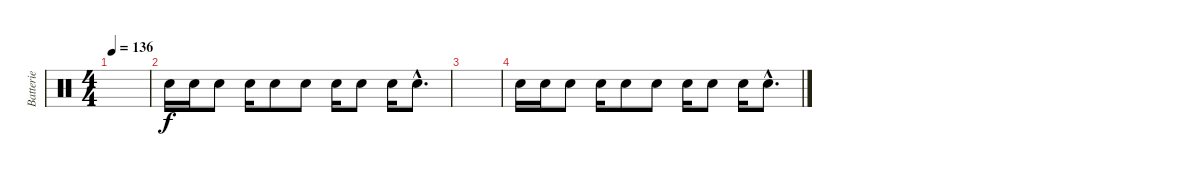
\track ("Batterie" "Batterie") {instrument percussion}
\staff {score}
\articulation defaults
\ts (4 4)
\tempo 136
\clef neutral
\ks c
|
"Snare (hit) 2".16 "Snare (hit) 2".16 "Snare (hit) 2".8 "Snare (hit) 2".16 "Snare (hit) 2".8 "Snare (hit) 2".8 "Snare (hit) 2".16 "Snare (hit) 2".8 "Snare (hit) 2".16 "Snare (hit) 2"{hac}.8{d} |
|
"Snare (hit) 2".16 "Snare (hit) 2".16 "Snare (hit) 2".8 "Snare (hit) 2".16 "Snare (hit) 2".8 "Snare (hit) 2".8 "Snare (hit) 2".16 "Snare (hit) 2".8 "Snare (hit) 2".16 "Snare (hit) 2"{hac}.8{d}
